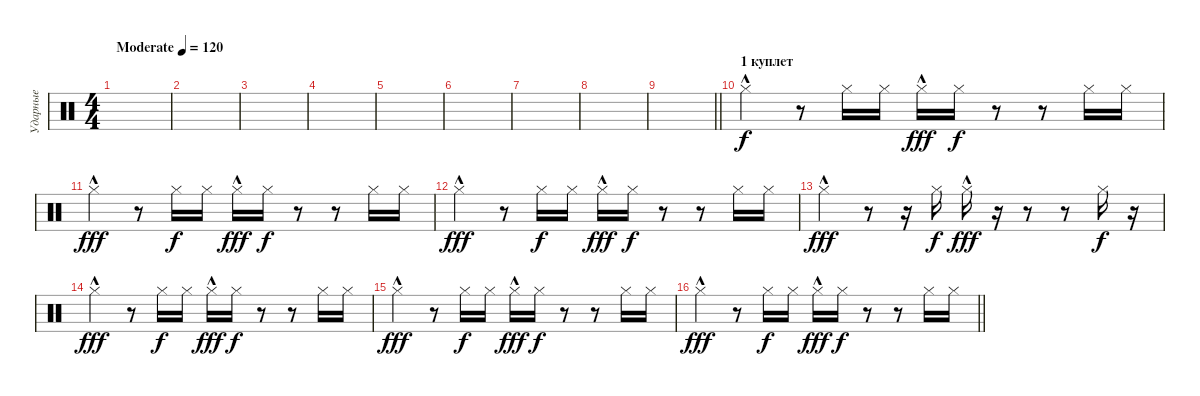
\track ("Ударные" "Ударные") {instrument percussion}
\staff {score}
\articulation defaults
\ts (4 4)
\tempo (120 "Moderate")
\clef neutral
\ks c
|
|
|
|
|
|
|
|
\barLineRight lightlight
|
\section ("" "1 куплет")
"Hi-Hat (closed)"{hac}.4 r.8 "Hi-Hat (closed)".16{dy f} "Hi-Hat (closed)".16 "Hi-Hat (closed)"{hac}.16{dy fff} "Hi-Hat (closed)".16{dy f} r.8 r.8 "Hi-Hat (closed)".16 "Hi-Hat (closed)".16 |
"Hi-Hat (closed)"{hac}.4{dy fff} r.8 "Hi-Hat (closed)".16{dy f} "Hi-Hat (closed)".16 "Hi-Hat (closed)"{hac}.16{dy fff} "Hi-Hat (closed)".16{dy f} r.8 r.8 "Hi-Hat (closed)".16 "Hi-Hat (closed)".16 |
"Hi-Hat (closed)"{hac}.4{dy fff} r.8 "Hi-Hat (closed)".16{dy f} "Hi-Hat (closed)".16 "Hi-Hat (closed)"{hac}.16{dy fff} "Hi-Hat (closed)".16{dy f} r.8 r.8 "Hi-Hat (closed)".16 "Hi-Hat (closed)".16 |
"Hi-Hat (closed)"{hac}.4{dy fff} r.8 r.16 "Hi-Hat (closed)".16{dy f} "Hi-Hat (closed)"{hac}.16{dy fff} r.16 r.8 r.8 "Hi-Hat (closed)".16{dy f} r.16 |
"Hi-Hat (closed)"{hac}.4{dy fff} r.8 "Hi-Hat (closed)".16{dy f} "Hi-Hat (closed)".16 "Hi-Hat (closed)"{hac}.16{dy fff} "Hi-Hat (closed)".16{dy f} r.8 r.8 "Hi-Hat (closed)".16 "Hi-Hat (closed)".16 |
"Hi-Hat (closed)"{hac}.4{dy fff} r.8 "Hi-Hat (closed)".16{dy f} "Hi-Hat (closed)".16 "Hi-Hat (closed)"{hac}.16{dy fff} "Hi-Hat (closed)".16{dy f} r.8 r.8 "Hi-Hat (closed)".16 "Hi-Hat (closed)".16 |
\barLineRight lightlight "Hi-Hat (closed)"{hac}.4{dy fff}
r.8 "Hi-Hat (closed)".16{dy f} "Hi-Hat (closed)".16 "Hi-Hat (closed)"{hac}.16{dy fff} "Hi-Hat (closed)".16{dy f} r.8 r.8 "Hi-Hat (closed)".16 "Hi-Hat (closed)".16
